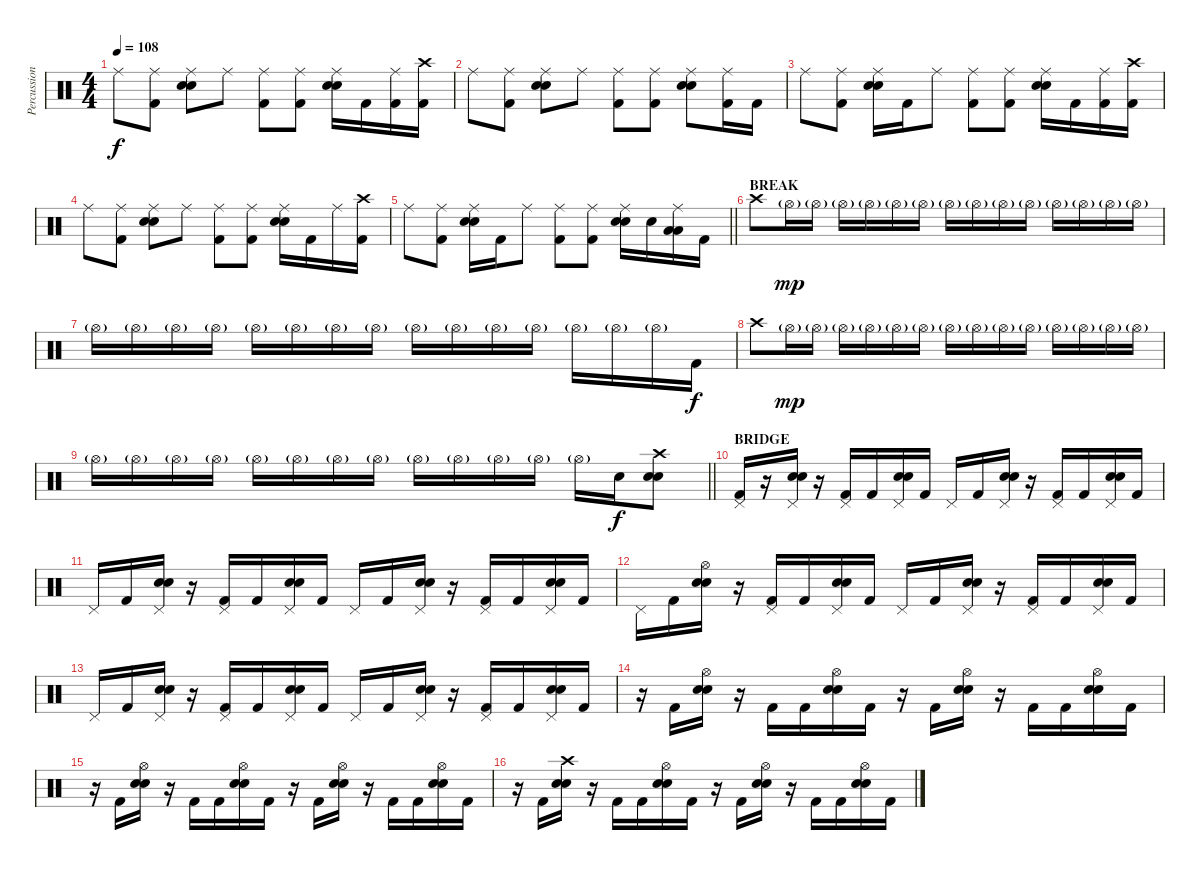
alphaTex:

\track ("Percussion" "Percussion") {instrument percussion}
\staff {score}
\articulation defaults
\ts (4 4)
\tempo 108
\clef neutral
\ks c "Ride (middle)".8{dy f}
("Ride (middle)" "Kick (hit) 2").8 ("Ride (middle)" "Snare (hit) 2" "Electric Snare (hit)").8 "Ride (middle)".8 ("Ride (middle)" "Kick (hit) 2").8 ("Ride (middle)" "Kick (hit) 2").8 ("Ride (middle)" "Snare (hit) 2" "Electric Snare (hit)").16 "Kick (hit) 2".16 ("Ride (middle)" "Kick (hit) 2").16 ("Crash high (hit)" "Kick (hit) 2").16 |
"Ride (middle)".8 ("Ride (middle)" "Kick (hit) 2").8 ("Ride (middle)" "Snare (hit) 2" "Electric Snare (hit)").8 "Ride (middle)".8 ("Ride (middle)" "Kick (hit) 2").8 ("Ride (middle)" "Kick (hit) 2").8 ("Ride (middle)" "Snare (hit) 2" "Electric Snare (hit)").8 ("Ride (middle)" "Kick (hit) 2").16 "Kick (hit) 2".16 |
"Ride (middle)".8 ("Ride (middle)" "Kick (hit) 2").8 ("Ride (middle)" "Snare (hit) 2" "Electric Snare (hit)").16 "Kick (hit) 2".16 "Ride (middle)".8 ("Ride (middle)" "Kick (hit) 2").8 ("Ride (middle)" "Kick (hit) 2").8 ("Ride (middle)" "Snare (hit) 2" "Electric Snare (hit)").16 "Kick (hit) 2".16 ("Ride (middle)" "Kick (hit) 2").16 ("Crash high (hit)" "Kick (hit) 2").16 |
"Ride (middle)".8 ("Ride (middle)" "Kick (hit) 2").8 ("Ride (middle)" "Snare (hit) 2" "Electric Snare (hit)").8 "Ride (middle)".8 ("Ride (middle)" "Kick (hit) 2").8 ("Ride (middle)" "Kick (hit) 2").8 ("Ride (middle)" "Snare (hit) 2" "Electric Snare (hit)").16 "Kick (hit) 2".16 "Ride (middle)".16 ("Crash high (hit)" "Kick (hit) 2").16 |
\barLineRight lightlight "Ride (middle)".8
("Ride (middle)" "Kick (hit) 2").8 ("Ride (middle)" "Snare (hit) 2" "Electric Snare (hit)").16 "Kick (hit) 2".16 "Ride (middle)".8 ("Ride (middle)" "Kick (hit) 2").8 ("Ride (middle)" "Kick (hit) 2").8 ("Ride (middle)" "Snare (hit) 2" "Electric Snare (hit)").16 "Electric Snare (hit)".16 ("Ride (middle)" "Low Floor Tom (hit)" "Low Floor Tom (hit)").16 "Kick (hit) 2".16 |
\section ("" "BREAK")
"Crash high (hit)".8 "Hi-Hat (open)"{g}.16{dy mp} "Hi-Hat (open)"{g}.16 "Hi-Hat (open)"{g}.16 "Hi-Hat (open)"{g}.16 "Hi-Hat (open)"{g}.16 "Hi-Hat (open)"{g}.16 "Hi-Hat (open)"{g}.16 "Hi-Hat (open)"{g}.16 "Hi-Hat (open)"{g}.16 "Hi-Hat (open)"{g}.16 "Hi-Hat (open)"{g}.16 "Hi-Hat (open)"{g}.16 "Hi-Hat (open)"{g}.16 "Hi-Hat (open)"{g}.16 |
"Hi-Hat (open)"{g}.16 "Hi-Hat (open)"{g}.16 "Hi-Hat (open)"{g}.16 "Hi-Hat (open)"{g}.16 "Hi-Hat (open)"{g}.16 "Hi-Hat (open)"{g}.16 "Hi-Hat (open)"{g}.16 "Hi-Hat (open)"{g}.16 "Hi-Hat (open)"{g}.16 "Hi-Hat (open)"{g}.16 "Hi-Hat (open)"{g}.16 "Hi-Hat (open)"{g}.16 "Hi-Hat (open)"{g}.16 "Hi-Hat (open)"{g}.16 "Hi-Hat (open)"{g}.16 "Kick (hit) 2".16{dy f} |
"Crash high (hit)".8 "Hi-Hat (open)"{g}.16{dy mp} "Hi-Hat (open)"{g}.16 "Hi-Hat (open)"{g}.16 "Hi-Hat (open)"{g}.16 "Hi-Hat (open)"{g}.16 "Hi-Hat (open)"{g}.16 "Hi-Hat (open)"{g}.16 "Hi-Hat (open)"{g}.16 "Hi-Hat (open)"{g}.16 "Hi-Hat (open)"{g}.16 "Hi-Hat (open)"{g}.16 "Hi-Hat (open)"{g}.16 "Hi-Hat (open)"{g}.16 "Hi-Hat (open)"{g}.16 |
\barLineRight lightlight "Hi-Hat (open)"{g}.16 "Hi-Hat (open)"{g}.16 "Hi-Hat (open)"{g}.16 "Hi-Hat (open)"{g}.16 "Hi-Hat (open)"{g}.16 "Hi-Hat (open)"{g}.16 "Hi-Hat (open)"{g}.16 "Hi-Hat (open)"{g}.16 "Hi-Hat (open)"{g}.16 "Hi-Hat (open)"{g}.16 "Hi-Hat (open)"{g}.16 "Hi-Hat (open)"{g}.16 "Hi-Hat (open)"{g}.16 "Snare (hit) 2".16{dy f}
("Crash high (hit)" "Snare (hit) 2" "Electric Snare (hit)").8 |
\section ("" "BRIDGE")
("Pedal Hi-Hat (hit)" "Kick (hit) 2").16 r.16 ("Pedal Hi-Hat (hit)" "Snare (hit) 2" "Electric Snare (hit)").16 r.16 ("Pedal Hi-Hat (hit)" "Kick (hit) 2").16 "Kick (hit) 2".16 ("Pedal Hi-Hat (hit)" "Snare (hit) 2" "Electric Snare (hit)").16 "Kick (hit) 2".16 "Pedal Hi-Hat (hit)".16 "Kick (hit) 2".16 ("Pedal Hi-Hat (hit)" "Snare (hit) 2" "Electric Snare (hit)").16 r.16 ("Pedal Hi-Hat (hit)" "Kick (hit) 2").16 "Kick (hit) 2".16 ("Pedal Hi-Hat (hit)" "Snare (hit) 2" "Electric Snare (hit)").16 "Kick (hit) 2".16 |
"Pedal Hi-Hat (hit)".16 "Kick (hit) 2".16 ("Pedal Hi-Hat (hit)" "Snare (hit) 2" "Electric Snare (hit)").16 r.16 ("Pedal Hi-Hat (hit)" "Kick (hit) 2").16 "Kick (hit) 2".16 ("Pedal Hi-Hat (hit)" "Snare (hit) 2" "Electric Snare (hit)").16 "Kick (hit) 2".16 "Pedal Hi-Hat (hit)".16 "Kick (hit) 2".16 ("Pedal Hi-Hat (hit)" "Snare (hit) 2" "Electric Snare (hit)").16 r.16 ("Pedal Hi-Hat (hit)" "Kick (hit) 2").16 "Kick (hit) 2".16 ("Pedal Hi-Hat (hit)" "Snare (hit) 2" "Electric Snare (hit)").16 "Kick (hit) 2".16 |
"Pedal Hi-Hat (hit)".16 "Kick (hit) 2".16 ("Hi-Hat (open)" "Snare (hit) 2" "Electric Snare (hit)").16 r.16 ("Pedal Hi-Hat (hit)" "Kick (hit) 2").16 "Kick (hit) 2".16 ("Pedal Hi-Hat (hit)" "Snare (hit) 2" "Electric Snare (hit)").16 "Kick (hit) 2".16 "Pedal Hi-Hat (hit)".16 "Kick (hit) 2".16 ("Pedal Hi-Hat (hit)" "Snare (hit) 2" "Electric Snare (hit)").16 r.16 ("Pedal Hi-Hat (hit)" "Kick (hit) 2").16 "Kick (hit) 2".16 ("Pedal Hi-Hat (hit)" "Snare (hit) 2" "Electric Snare (hit)").16 "Kick (hit) 2".16 |
"Pedal Hi-Hat (hit)".16 "Kick (hit) 2".16 ("Pedal Hi-Hat (hit)" "Snare (hit) 2" "Electric Snare (hit)").16 r.16 ("Pedal Hi-Hat (hit)" "Kick (hit) 2").16 "Kick (hit) 2".16 ("Pedal Hi-Hat (hit)" "Snare (hit) 2" "Electric Snare (hit)").16 "Kick (hit) 2".16 "Pedal Hi-Hat (hit)".16 "Kick (hit) 2".16 ("Pedal Hi-Hat (hit)" "Snare (hit) 2" "Electric Snare (hit)").16 r.16 ("Pedal Hi-Hat (hit)" "Kick (hit) 2").16 "Kick (hit) 2".16 ("Pedal Hi-Hat (hit)" "Snare (hit) 2" "Electric Snare (hit)").16 "Kick (hit) 2".16 |
r.16 "Kick (hit) 2".16 ("Hi-Hat (open)" "Snare (hit) 2" "Electric Snare (hit)").16 r.16 "Kick (hit) 2".16 "Kick (hit) 2".16 ("Hi-Hat (open)" "Snare (hit) 2" "Electric Snare (hit)").16 "Kick (hit) 2".16 r.16 "Kick (hit) 2".16 ("Hi-Hat (open)" "Snare (hit) 2" "Electric Snare (hit)").16 r.16 "Kick (hit) 2".16 "Kick (hit) 2".16 ("Hi-Hat (open)" "Snare (hit) 2" "Electric Snare (hit)").16 "Kick (hit) 2".16 |
r.16 "Kick (hit) 2".16 ("Hi-Hat (open)" "Snare (hit) 2" "Electric Snare (hit)").16 r.16 "Kick (hit) 2".16 "Kick (hit) 2".16 ("Hi-Hat (open)" "Snare (hit) 2" "Electric Snare (hit)").16 "Kick (hit) 2".16 r.16 "Kick (hit) 2".16 ("Hi-Hat (open)" "Snare (hit) 2" "Electric Snare (hit)").16 r.16 "Kick (hit) 2".16 "Kick (hit) 2".16 ("Hi-Hat (open)" "Snare (hit) 2" "Electric Snare (hit)").16 "Kick (hit) 2".16 |
r.16 "Kick (hit) 2".16 ("Crash high (hit)" "Snare (hit) 2" "Electric Snare (hit)").16 r.16 "Kick (hit) 2".16 "Kick (hit) 2".16 ("Hi-Hat (open)" "Snare (hit) 2" "Electric Snare (hit)").16 "Kick (hit) 2".16 r.16 "Kick (hit) 2".16 ("Hi-Hat (open)" "Snare (hit) 2" "Electric Snare (hit)").16 r.16 "Kick (hit) 2".16 "Kick (hit) 2".16 ("Hi-Hat (open)" "Snare (hit) 2" "Electric Snare (hit)").16 "Kick (hit) 2".16
